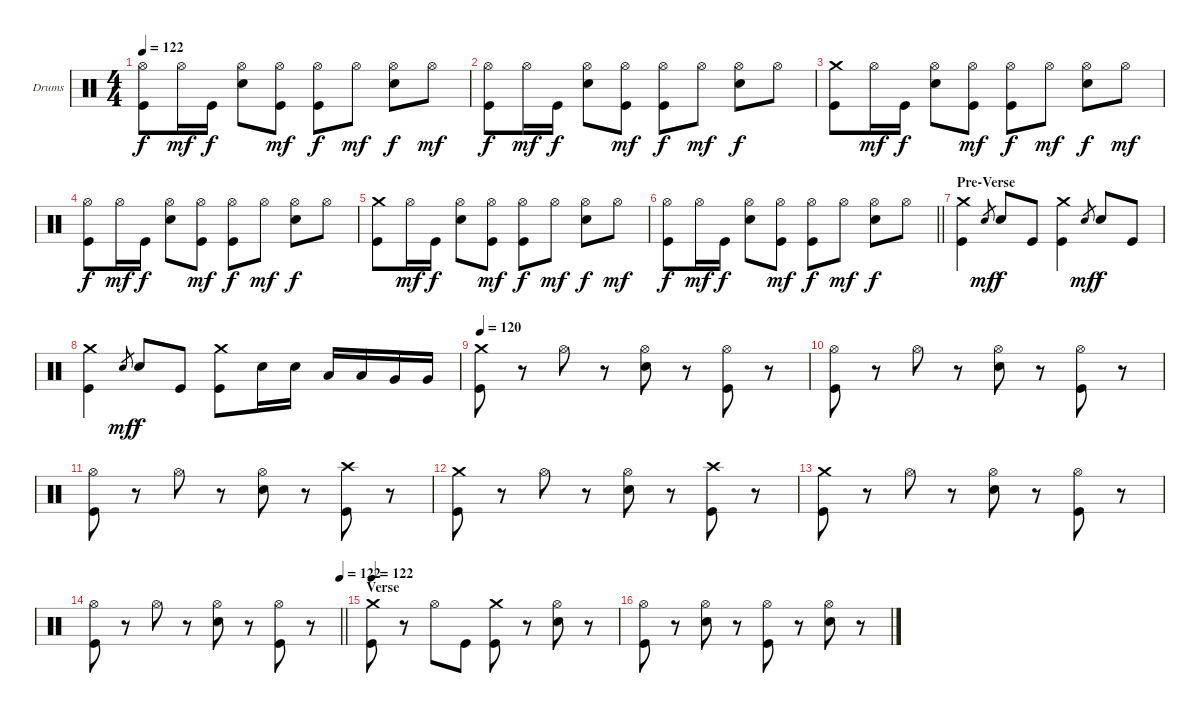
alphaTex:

\bracketExtendMode groupsimilarinstruments
\firstSystemTrackNameOrientation horizontal
\otherSystemsTrackNameOrientation horizontal
\track ("Drumkit" "Drums") {instrument percussion}
\staff {score}
\articulation defaults
\ts (4 4)
\tempo 122
\clef neutral
\ks c
("Hi-Hat (open)" "Kick (hit)").8{dy f} "Hi-Hat (open)".16{dy mf} "Kick (hit)".16{dy f} ("Hi-Hat (open)" "Snare (hit) 2").8 ("Hi-Hat (open)" "Kick (hit)").8{dy mf} ("Hi-Hat (open)" "Kick (hit)").8{dy f} "Hi-Hat (open)".8{dy mf} ("Hi-Hat (open)" "Snare (hit) 2").8{dy f} "Hi-Hat (open)".8{dy mf} |
("Hi-Hat (open)" "Kick (hit)").8{dy f} "Hi-Hat (open)".16{dy mf} "Kick (hit)".16{dy f} ("Hi-Hat (open)" "Snare (hit) 2").8 ("Hi-Hat (open)" "Kick (hit)").8{dy mf} ("Hi-Hat (open)" "Kick (hit)").8{dy f} "Hi-Hat (open)".8{dy mf} ("Hi-Hat (open)" "Snare (hit) 2").8{dy f} "Hi-Hat (open)".8 |
("Crash medium (hit)" "Kick (hit)").8 "Hi-Hat (open)".16{dy mf} "Kick (hit)".16{dy f} ("Hi-Hat (open)" "Snare (hit) 2").8 ("Hi-Hat (open)" "Kick (hit)").8{dy mf} ("Hi-Hat (open)" "Kick (hit)").8{dy f} "Hi-Hat (open)".8{dy mf} ("Hi-Hat (open)" "Snare (hit) 2").8{dy f} "Hi-Hat (open)".8{dy mf} |
("Hi-Hat (open)" "Kick (hit)").8{dy f} "Hi-Hat (open)".16{dy mf} "Kick (hit)".16{dy f} ("Hi-Hat (open)" "Snare (hit) 2").8 ("Hi-Hat (open)" "Kick (hit)").8{dy mf} ("Hi-Hat (open)" "Kick (hit)").8{dy f} "Hi-Hat (open)".8{dy mf} ("Hi-Hat (open)" "Snare (hit) 2").8{dy f} "Hi-Hat (open)".8 |
("Crash medium (hit)" "Kick (hit)").8 "Hi-Hat (open)".16{dy mf} "Kick (hit)".16{dy f} ("Hi-Hat (open)" "Snare (hit) 2").8 ("Hi-Hat (open)" "Kick (hit)").8{dy mf} ("Hi-Hat (open)" "Kick (hit)").8{dy f} "Hi-Hat (open)".8{dy mf} ("Hi-Hat (open)" "Snare (hit) 2").8{dy f} "Hi-Hat (open)".8{dy mf} |
\barLineRight lightlight
("Hi-Hat (open)" "Kick (hit)").8{dy f} "Hi-Hat (open)".16{dy mf} "Kick (hit)".16{dy f} ("Hi-Hat (open)" "Snare (hit) 2").8 ("Hi-Hat (open)" "Kick (hit)").8{dy mf} ("Hi-Hat (open)" "Kick (hit)").8{dy f} "Hi-Hat (open)".8{dy mf} ("Hi-Hat (open)" "Snare (hit) 2").8{dy f} "Hi-Hat (open)".8 |
\section ("" "Pre-Verse")
("Crash medium (hit)" "Kick (hit)").4 "Snare (hit) 2".8{gr dy mf} "Snare (hit) 2".8{dy f} "Kick (hit)".8 ("Crash medium (hit)" "Kick (hit)").4 "Snare (hit) 2".8{gr dy mf} "Snare (hit) 2".8{dy f} "Kick (hit)".8 |
("Crash medium (hit)" "Kick (hit)").4 "Snare (hit) 2".8{gr dy mf} "Snare (hit) 2".8{dy f} "Kick (hit)".8 ("Crash medium (hit)" "Kick (hit)").8 "Snare (hit) 2".16 "Snare (hit) 2".16 "Low Tom (hit)".16 "Low Tom (hit)".16 "Very Low Tom (hit)".16 "Very Low Tom (hit)".16 |
\tempo 120
("Crash medium (hit)" "Kick (hit)").8 r.8 "Hi-Hat (open)".8 r.8 ("Hi-Hat (open)" "Snare (hit) 2").8 r.8 ("Hi-Hat (open)" "Kick (hit)").8 r.8 |
("Hi-Hat (open)" "Kick (hit)").8 r.8 "Hi-Hat (open)".8 r.8 ("Hi-Hat (open)" "Snare (hit) 2").8 r.8 ("Hi-Hat (open)" "Kick (hit)").8 r.8 |
("Hi-Hat (open)" "Kick (hit)").8 r.8 "Hi-Hat (open)".8 r.8 ("Hi-Hat (open)" "Snare (hit) 2").8 r.8 ("Crash high (hit)" "Kick (hit)").8 r.8 |
("Crash medium (hit)" "Kick (hit)").8 r.8 "Hi-Hat (open)".8 r.8 ("Hi-Hat (open)" "Snare (hit) 2").8 r.8 ("Crash high (hit)" "Kick (hit)").8 r.8 |
("Crash medium (hit)" "Kick (hit)").8 r.8 "Hi-Hat (open)".8 r.8 ("Hi-Hat (open)" "Snare (hit) 2").8 r.8 ("Hi-Hat (open)" "Kick (hit)").8 r.8 |
\tempo (122 1)
\barLineRight lightlight
("Hi-Hat (open)" "Kick (hit)").8 r.8 "Hi-Hat (open)".8 r.8 ("Hi-Hat (open)" "Snare (hit) 2").8 r.8 ("Hi-Hat (open)" "Kick (hit)").8 r.8 |
\section ("" "Verse")
\tempo 122
("Crash medium (hit)" "Kick (hit)").8 r.8 "Hi-Hat (open)".8 "Kick (hit)".8 ("Crash medium (hit)" "Kick (hit)").8 r.8 ("Hi-Hat (open)" "Snare (hit) 2").8 r.8 |
("Hi-Hat (open)" "Kick (hit)").8 r.8 ("Hi-Hat (open)" "Snare (hit) 2").8 r.8 ("Hi-Hat (open)" "Kick (hit)").8 r.8 ("Hi-Hat (open)" "Snare (hit) 2").8 r.8
